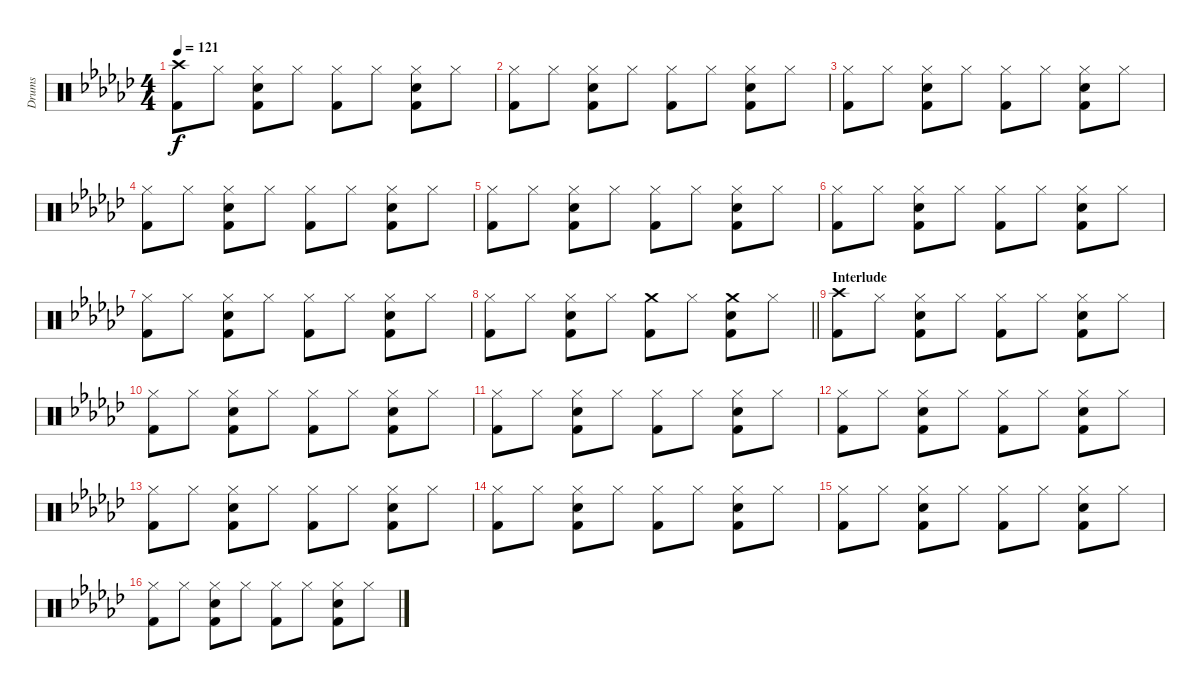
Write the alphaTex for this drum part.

\track ("Drums" "Drums") {instrument percussion}
\staff {score}
\articulation defaults
\ts (4 4)
\tempo 121
\clef neutral
\ks ebminor
("Crash high (hit)" "Kick (hit) 2").8{dy f} "Hi-Hat (closed)".8 ("Hi-Hat (closed)" "Snare (hit) 2" "Kick (hit) 2").8 "Hi-Hat (closed)".8 ("Hi-Hat (closed)" "Kick (hit) 2").8 "Hi-Hat (closed)".8 ("Hi-Hat (closed)" "Snare (hit) 2" "Kick (hit) 2").8 "Hi-Hat (closed)".8 |
("Hi-Hat (closed)" "Kick (hit) 2").8 "Hi-Hat (closed)".8 ("Hi-Hat (closed)" "Snare (hit) 2" "Kick (hit) 2").8 "Hi-Hat (closed)".8 ("Hi-Hat (closed)" "Kick (hit) 2").8 "Hi-Hat (closed)".8 ("Hi-Hat (closed)" "Snare (hit) 2" "Kick (hit) 2").8 "Hi-Hat (closed)".8 |
("Hi-Hat (closed)" "Kick (hit) 2").8 "Hi-Hat (closed)".8 ("Hi-Hat (closed)" "Snare (hit) 2" "Kick (hit) 2").8 "Hi-Hat (closed)".8 ("Hi-Hat (closed)" "Kick (hit) 2").8 "Hi-Hat (closed)".8 ("Hi-Hat (closed)" "Snare (hit) 2" "Kick (hit) 2").8 "Hi-Hat (closed)".8 |
("Hi-Hat (closed)" "Kick (hit) 2").8 "Hi-Hat (closed)".8 ("Hi-Hat (closed)" "Snare (hit) 2" "Kick (hit) 2").8 "Hi-Hat (closed)".8 ("Hi-Hat (closed)" "Kick (hit) 2").8 "Hi-Hat (closed)".8 ("Hi-Hat (closed)" "Snare (hit) 2" "Kick (hit) 2").8 "Hi-Hat (closed)".8 |
("Hi-Hat (closed)" "Kick (hit) 2").8 "Hi-Hat (closed)".8 ("Hi-Hat (closed)" "Snare (hit) 2" "Kick (hit) 2").8 "Hi-Hat (closed)".8 ("Hi-Hat (closed)" "Kick (hit) 2").8 "Hi-Hat (closed)".8 ("Hi-Hat (closed)" "Snare (hit) 2" "Kick (hit) 2").8 "Hi-Hat (closed)".8 |
("Hi-Hat (closed)" "Kick (hit) 2").8 "Hi-Hat (closed)".8 ("Hi-Hat (closed)" "Snare (hit) 2" "Kick (hit) 2").8 "Hi-Hat (closed)".8 ("Hi-Hat (closed)" "Kick (hit) 2").8 "Hi-Hat (closed)".8 ("Hi-Hat (closed)" "Snare (hit) 2" "Kick (hit) 2").8 "Hi-Hat (closed)".8 |
("Hi-Hat (closed)" "Kick (hit) 2").8 "Hi-Hat (closed)".8 ("Hi-Hat (closed)" "Snare (hit) 2" "Kick (hit) 2").8 "Hi-Hat (closed)".8 ("Hi-Hat (closed)" "Kick (hit) 2").8 "Hi-Hat (closed)".8 ("Hi-Hat (closed)" "Snare (hit) 2" "Kick (hit) 2").8 "Hi-Hat (closed)".8 |
\barLineRight lightlight
("Hi-Hat (closed)" "Kick (hit) 2").8 "Hi-Hat (closed)".8 ("Hi-Hat (closed)" "Snare (hit) 2" "Kick (hit) 2").8 "Hi-Hat (closed)".8 ("Crash medium (hit)" "Kick (hit) 2").8 "Hi-Hat (closed)".8 ("Crash medium (hit)" "Snare (hit) 2" "Kick (hit) 2").8 "Hi-Hat (closed)".8 |
\section ("" "Interlude")
("Crash high (hit)" "Kick (hit) 2").8 "Hi-Hat (closed)".8 ("Hi-Hat (closed)" "Snare (hit) 2" "Kick (hit) 2").8 "Hi-Hat (closed)".8 ("Hi-Hat (closed)" "Kick (hit) 2").8 "Hi-Hat (closed)".8 ("Hi-Hat (closed)" "Snare (hit) 2" "Kick (hit) 2").8 "Hi-Hat (closed)".8 |
("Hi-Hat (closed)" "Kick (hit) 2").8 "Hi-Hat (closed)".8 ("Hi-Hat (closed)" "Snare (hit) 2" "Kick (hit) 2").8 "Hi-Hat (closed)".8 ("Hi-Hat (closed)" "Kick (hit) 2").8 "Hi-Hat (closed)".8 ("Hi-Hat (closed)" "Snare (hit) 2" "Kick (hit) 2").8 "Hi-Hat (closed)".8 |
("Hi-Hat (closed)" "Kick (hit) 2").8 "Hi-Hat (closed)".8 ("Hi-Hat (closed)" "Snare (hit) 2" "Kick (hit) 2").8 "Hi-Hat (closed)".8 ("Hi-Hat (closed)" "Kick (hit) 2").8 "Hi-Hat (closed)".8 ("Hi-Hat (closed)" "Snare (hit) 2" "Kick (hit) 2").8 "Hi-Hat (closed)".8 |
("Hi-Hat (closed)" "Kick (hit) 2").8 "Hi-Hat (closed)".8 ("Hi-Hat (closed)" "Snare (hit) 2" "Kick (hit) 2").8 "Hi-Hat (closed)".8 ("Hi-Hat (closed)" "Kick (hit) 2").8 "Hi-Hat (closed)".8 ("Hi-Hat (closed)" "Snare (hit) 2" "Kick (hit) 2").8 "Hi-Hat (closed)".8 |
("Hi-Hat (closed)" "Kick (hit) 2").8 "Hi-Hat (closed)".8 ("Hi-Hat (closed)" "Snare (hit) 2" "Kick (hit) 2").8 "Hi-Hat (closed)".8 ("Hi-Hat (closed)" "Kick (hit) 2").8 "Hi-Hat (closed)".8 ("Hi-Hat (closed)" "Snare (hit) 2" "Kick (hit) 2").8 "Hi-Hat (closed)".8 |
("Hi-Hat (closed)" "Kick (hit) 2").8 "Hi-Hat (closed)".8 ("Hi-Hat (closed)" "Snare (hit) 2" "Kick (hit) 2").8 "Hi-Hat (closed)".8 ("Hi-Hat (closed)" "Kick (hit) 2").8 "Hi-Hat (closed)".8 ("Hi-Hat (closed)" "Snare (hit) 2" "Kick (hit) 2").8 "Hi-Hat (closed)".8 |
("Hi-Hat (closed)" "Kick (hit) 2").8 "Hi-Hat (closed)".8 ("Hi-Hat (closed)" "Snare (hit) 2" "Kick (hit) 2").8 "Hi-Hat (closed)".8 ("Hi-Hat (closed)" "Kick (hit) 2").8 "Hi-Hat (closed)".8 ("Hi-Hat (closed)" "Snare (hit) 2" "Kick (hit) 2").8 "Hi-Hat (closed)".8 |
("Hi-Hat (closed)" "Kick (hit) 2").8 "Hi-Hat (closed)".8 ("Hi-Hat (closed)" "Snare (hit) 2" "Kick (hit) 2").8 "Hi-Hat (closed)".8 ("Hi-Hat (closed)" "Kick (hit) 2").8 "Hi-Hat (closed)".8 ("Hi-Hat (closed)" "Snare (hit) 2" "Kick (hit) 2").8 "Hi-Hat (closed)".8
